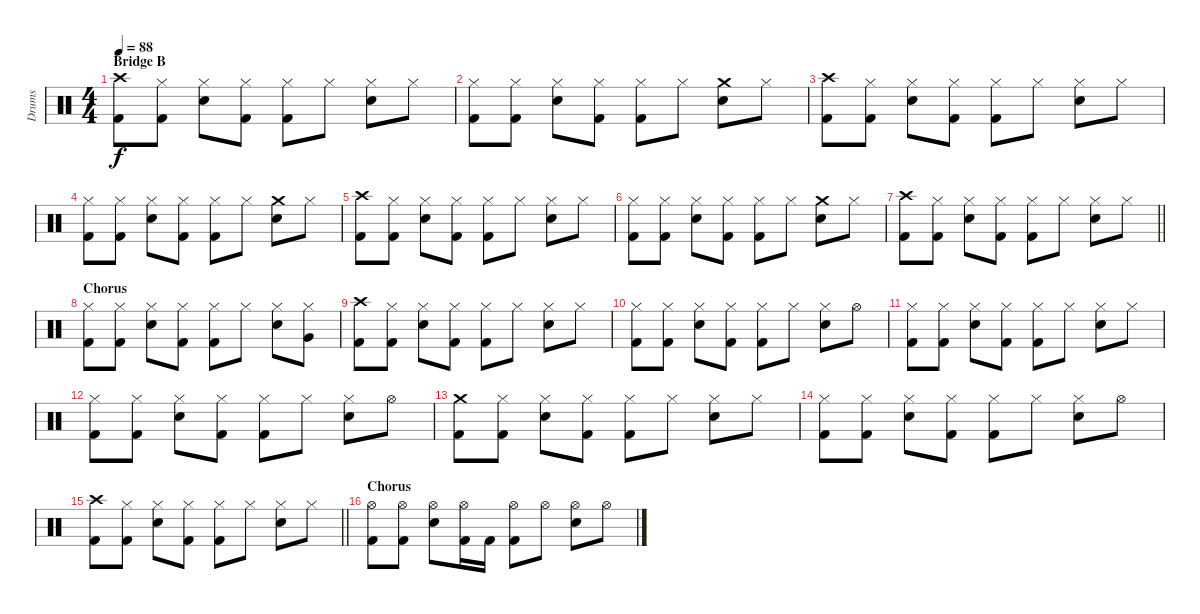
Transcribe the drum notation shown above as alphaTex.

\track ("Drums" "Drums") {instrument percussion}
\staff {score}
\articulation defaults
\ts (4 4)
\section ("" "Bridge B")
\tempo 88
\clef neutral
\ks c
("Crash high (hit)" "Kick (hit) 2").8{dy f} ("Hi-Hat (closed)" "Kick (hit) 2").8 ("Hi-Hat (closed)" "Snare (hit) 2").8 ("Hi-Hat (closed)" "Kick (hit) 2").8 ("Hi-Hat (closed)" "Kick (hit) 2").8 "Hi-Hat (closed)".8 ("Hi-Hat (closed)" "Snare (hit) 2").8 "Hi-Hat (closed)".8 |
("Hi-Hat (closed)" "Kick (hit) 2").8 ("Hi-Hat (closed)" "Kick (hit) 2").8 ("Hi-Hat (closed)" "Snare (hit) 2").8 ("Hi-Hat (closed)" "Kick (hit) 2").8 ("Hi-Hat (closed)" "Kick (hit) 2").8 "Hi-Hat (closed)".8 ("Crash medium (hit)" "Snare (hit) 2").8 "Hi-Hat (closed)".8 |
("Crash high (hit)" "Kick (hit) 2").8 ("Hi-Hat (closed)" "Kick (hit) 2").8 ("Hi-Hat (closed)" "Snare (hit) 2").8 ("Hi-Hat (closed)" "Kick (hit) 2").8 ("Hi-Hat (closed)" "Kick (hit) 2").8 "Hi-Hat (closed)".8 ("Hi-Hat (closed)" "Snare (hit) 2").8 "Hi-Hat (closed)".8 |
("Hi-Hat (closed)" "Kick (hit) 2").8 ("Hi-Hat (closed)" "Kick (hit) 2").8 ("Hi-Hat (closed)" "Snare (hit) 2").8 ("Hi-Hat (closed)" "Kick (hit) 2").8 ("Hi-Hat (closed)" "Kick (hit) 2").8 "Hi-Hat (closed)".8 ("Crash medium (hit)" "Snare (hit) 2").8 "Hi-Hat (closed)".8 |
("Crash high (hit)" "Kick (hit) 2").8 ("Hi-Hat (closed)" "Kick (hit) 2").8 ("Hi-Hat (closed)" "Snare (hit) 2").8 ("Hi-Hat (closed)" "Kick (hit) 2").8 ("Hi-Hat (closed)" "Kick (hit) 2").8 "Hi-Hat (closed)".8 ("Hi-Hat (closed)" "Snare (hit) 2").8 "Hi-Hat (closed)".8 |
("Hi-Hat (closed)" "Kick (hit) 2").8 ("Hi-Hat (closed)" "Kick (hit) 2").8 ("Hi-Hat (closed)" "Snare (hit) 2").8 ("Hi-Hat (closed)" "Kick (hit) 2").8 ("Hi-Hat (closed)" "Kick (hit) 2").8 "Hi-Hat (closed)".8 ("Crash medium (hit)" "Snare (hit) 2").8 "Hi-Hat (closed)".8 |
\barLineRight lightlight
("Crash high (hit)" "Kick (hit) 2").8 ("Hi-Hat (closed)" "Kick (hit) 2").8 ("Hi-Hat (closed)" "Snare (hit) 2").8 ("Hi-Hat (closed)" "Kick (hit) 2").8 ("Hi-Hat (closed)" "Kick (hit) 2").8 "Hi-Hat (closed)".8 ("Hi-Hat (closed)" "Snare (hit) 2").8 "Hi-Hat (closed)".8 |
\section ("" "Chorus")
("Hi-Hat (closed)" "Kick (hit) 2").8 ("Hi-Hat (closed)" "Kick (hit) 2").8 ("Hi-Hat (closed)" "Snare (hit) 2").8 ("Hi-Hat (closed)" "Kick (hit) 2").8 ("Hi-Hat (closed)" "Kick (hit) 2").8 "Hi-Hat (closed)".8 ("Hi-Hat (closed)" "Snare (hit) 2").8 ("Hi-Hat (closed)" "Very Low Tom (hit)").8 |
("Crash high (hit)" "Kick (hit) 2").8 ("Hi-Hat (closed)" "Kick (hit) 2").8 ("Hi-Hat (closed)" "Snare (hit) 2").8 ("Hi-Hat (closed)" "Kick (hit) 2").8 ("Hi-Hat (closed)" "Kick (hit) 2").8 "Hi-Hat (closed)".8 ("Hi-Hat (closed)" "Snare (hit) 2").8 "Hi-Hat (closed)".8 |
("Hi-Hat (closed)" "Kick (hit) 2").8 ("Hi-Hat (closed)" "Kick (hit) 2").8 ("Hi-Hat (closed)" "Snare (hit) 2").8 ("Hi-Hat (closed)" "Kick (hit) 2").8 ("Hi-Hat (closed)" "Kick (hit) 2").8 "Hi-Hat (closed)".8 ("Hi-Hat (closed)" "Snare (hit) 2").8 "Hi-Hat (open)".8 |
("Hi-Hat (closed)" "Kick (hit) 2").8 ("Hi-Hat (closed)" "Kick (hit) 2").8 ("Hi-Hat (closed)" "Snare (hit) 2").8 ("Hi-Hat (closed)" "Kick (hit) 2").8 ("Hi-Hat (closed)" "Kick (hit) 2").8 "Hi-Hat (closed)".8 ("Hi-Hat (closed)" "Snare (hit) 2").8 "Hi-Hat (closed)".8 |
("Hi-Hat (closed)" "Kick (hit) 2").8 ("Hi-Hat (closed)" "Kick (hit) 2").8 ("Hi-Hat (closed)" "Snare (hit) 2").8 ("Hi-Hat (closed)" "Kick (hit) 2").8 ("Hi-Hat (closed)" "Kick (hit) 2").8 "Hi-Hat (closed)".8 ("Hi-Hat (closed)" "Snare (hit) 2").8 "Hi-Hat (open)".8 |
("Crash medium (hit)" "Kick (hit) 2").8 ("Hi-Hat (closed)" "Kick (hit) 2").8 ("Hi-Hat (closed)" "Snare (hit) 2").8 ("Hi-Hat (closed)" "Kick (hit) 2").8 ("Hi-Hat (closed)" "Kick (hit) 2").8 "Hi-Hat (closed)".8 ("Hi-Hat (closed)" "Snare (hit) 2").8 "Hi-Hat (closed)".8 |
("Hi-Hat (closed)" "Kick (hit) 2").8 ("Hi-Hat (closed)" "Kick (hit) 2").8 ("Hi-Hat (closed)" "Snare (hit) 2").8 ("Hi-Hat (closed)" "Kick (hit) 2").8 ("Hi-Hat (closed)" "Kick (hit) 2").8 "Hi-Hat (closed)".8 ("Hi-Hat (closed)" "Snare (hit) 2").8 "Hi-Hat (open)".8 |
\barLineRight lightlight
("Crash high (hit)" "Kick (hit) 2").8 ("Hi-Hat (closed)" "Kick (hit) 2").8 ("Hi-Hat (closed)" "Snare (hit) 2").8 ("Hi-Hat (closed)" "Kick (hit) 2").8 ("Hi-Hat (closed)" "Kick (hit) 2").8 "Hi-Hat (closed)".8 ("Hi-Hat (closed)" "Snare (hit) 2").8 "Hi-Hat (closed)".8 |
\section ("" "Chorus")
("Hi-Hat (open)" "Kick (hit) 2").8 ("Hi-Hat (open)" "Kick (hit) 2").8 ("Hi-Hat (open)" "Snare (hit) 2").8 ("Hi-Hat (open)" "Kick (hit) 2").16 "Kick (hit) 2".16 ("Hi-Hat (open)" "Kick (hit) 2").8 "Hi-Hat (open)".8 ("Hi-Hat (open)" "Snare (hit) 2").8 "Hi-Hat (open)".8
